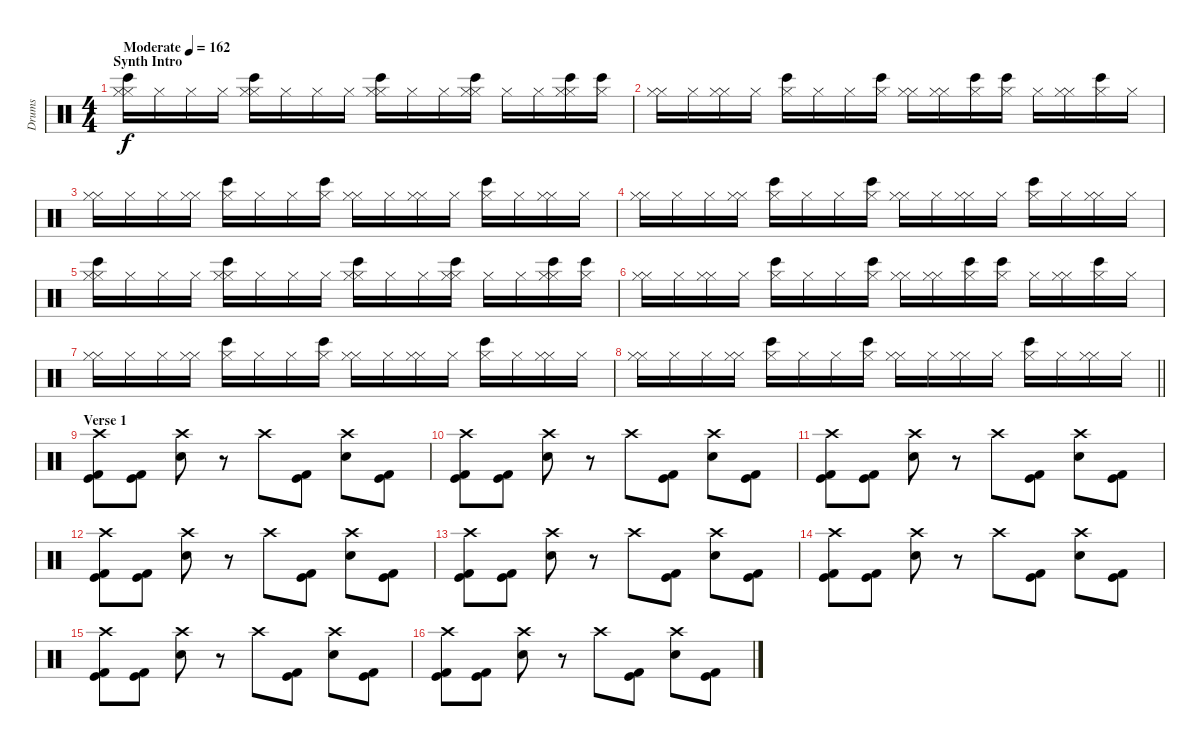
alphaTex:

\track ("Drums" "Drums") {instrument percussion}
\staff {score}
\articulation defaults
\ts (4 4)
\section ("" "Synth Intro")
\tempo (162 "Moderate")
\clef neutral
\ks c
("Hi-Hat (closed)" "Bongo High (hit)" "Hi-Hat (closed)").16{dy f} "Hi-Hat (closed)".16 "Hi-Hat (closed)".16 "Hi-Hat (closed)".16 ("Hi-Hat (closed)" "Bongo High (hit)" "Hi-Hat (closed)").16 "Hi-Hat (closed)".16 "Hi-Hat (closed)".16 "Hi-Hat (closed)".16 ("Hi-Hat (closed)" "Bongo High (hit)" "Hi-Hat (closed)").16 "Hi-Hat (closed)".16 "Hi-Hat (closed)".16 ("Hi-Hat (closed)" "Bongo High (hit)" "Hi-Hat (closed)").16 "Hi-Hat (closed)".16 "Hi-Hat (closed)".16 ("Hi-Hat (closed)" "Bongo High (hit)" "Hi-Hat (closed)").16 ("Bongo High (hit)" "Hi-Hat (closed)").16 |
("Hi-Hat (closed)" "Hi-Hat (closed)").16 "Hi-Hat (closed)".16 ("Hi-Hat (closed)" "Hi-Hat (closed)").16 "Hi-Hat (closed)".16 ("Bongo High (hit)" "Hi-Hat (closed)").16 "Hi-Hat (closed)".16 "Hi-Hat (closed)".16 ("Bongo High (hit)" "Hi-Hat (closed)").16 ("Hi-Hat (closed)" "Hi-Hat (closed)").16 ("Hi-Hat (closed)" "Hi-Hat (closed)").16 ("Bongo High (hit)" "Hi-Hat (closed)").16 ("Bongo High (hit)" "Hi-Hat (closed)").16 "Hi-Hat (closed)".16 ("Hi-Hat (closed)" "Hi-Hat (closed)").16 ("Bongo High (hit)" "Hi-Hat (closed)").16 "Hi-Hat (closed)".16 |
("Hi-Hat (closed)" "Hi-Hat (closed)").16 "Hi-Hat (closed)".16 "Hi-Hat (closed)".16 ("Hi-Hat (closed)" "Hi-Hat (closed)").16 ("Bongo High (hit)" "Hi-Hat (closed)").16 "Hi-Hat (closed)".16 "Hi-Hat (closed)".16 ("Bongo High (hit)" "Hi-Hat (closed)").16 ("Hi-Hat (closed)" "Hi-Hat (closed)").16 "Hi-Hat (closed)".16 ("Hi-Hat (closed)" "Hi-Hat (closed)").16 "Hi-Hat (closed)".16 ("Bongo High (hit)" "Hi-Hat (closed)").16 "Hi-Hat (closed)".16 ("Hi-Hat (closed)" "Hi-Hat (closed)").16 "Hi-Hat (closed)".16 |
("Hi-Hat (closed)" "Hi-Hat (closed)").16 "Hi-Hat (closed)".16 "Hi-Hat (closed)".16 ("Hi-Hat (closed)" "Hi-Hat (closed)").16 ("Bongo High (hit)" "Hi-Hat (closed)").16 "Hi-Hat (closed)".16 "Hi-Hat (closed)".16 ("Bongo High (hit)" "Hi-Hat (closed)").16 ("Hi-Hat (closed)" "Hi-Hat (closed)").16 "Hi-Hat (closed)".16 ("Hi-Hat (closed)" "Hi-Hat (closed)").16 "Hi-Hat (closed)".16 ("Bongo High (hit)" "Hi-Hat (closed)").16 "Hi-Hat (closed)".16 ("Hi-Hat (closed)" "Hi-Hat (closed)").16 "Hi-Hat (closed)".16 |
("Hi-Hat (closed)" "Bongo High (hit)" "Hi-Hat (closed)").16 "Hi-Hat (closed)".16 "Hi-Hat (closed)".16 "Hi-Hat (closed)".16 ("Hi-Hat (closed)" "Bongo High (hit)" "Hi-Hat (closed)").16 "Hi-Hat (closed)".16 "Hi-Hat (closed)".16 "Hi-Hat (closed)".16 ("Hi-Hat (closed)" "Bongo High (hit)" "Hi-Hat (closed)").16 "Hi-Hat (closed)".16 "Hi-Hat (closed)".16 ("Hi-Hat (closed)" "Bongo High (hit)" "Hi-Hat (closed)").16 "Hi-Hat (closed)".16 "Hi-Hat (closed)".16 ("Hi-Hat (closed)" "Bongo High (hit)" "Hi-Hat (closed)").16 ("Bongo High (hit)" "Hi-Hat (closed)").16 |
("Hi-Hat (closed)" "Hi-Hat (closed)").16 "Hi-Hat (closed)".16 ("Hi-Hat (closed)" "Hi-Hat (closed)").16 "Hi-Hat (closed)".16 ("Bongo High (hit)" "Hi-Hat (closed)").16 "Hi-Hat (closed)".16 "Hi-Hat (closed)".16 ("Bongo High (hit)" "Hi-Hat (closed)").16 ("Hi-Hat (closed)" "Hi-Hat (closed)").16 ("Hi-Hat (closed)" "Hi-Hat (closed)").16 ("Bongo High (hit)" "Hi-Hat (closed)").16 ("Bongo High (hit)" "Hi-Hat (closed)").16 "Hi-Hat (closed)".16 ("Hi-Hat (closed)" "Hi-Hat (closed)").16 ("Bongo High (hit)" "Hi-Hat (closed)").16 "Hi-Hat (closed)".16 |
("Hi-Hat (closed)" "Hi-Hat (closed)").16 "Hi-Hat (closed)".16 "Hi-Hat (closed)".16 ("Hi-Hat (closed)" "Hi-Hat (closed)").16 ("Bongo High (hit)" "Hi-Hat (closed)").16 "Hi-Hat (closed)".16 "Hi-Hat (closed)".16 ("Bongo High (hit)" "Hi-Hat (closed)").16 ("Hi-Hat (closed)" "Hi-Hat (closed)").16 "Hi-Hat (closed)".16 ("Hi-Hat (closed)" "Hi-Hat (closed)").16 "Hi-Hat (closed)".16 ("Bongo High (hit)" "Hi-Hat (closed)").16 "Hi-Hat (closed)".16 ("Hi-Hat (closed)" "Hi-Hat (closed)").16 "Hi-Hat (closed)".16 |
\barLineRight lightlight
("Hi-Hat (closed)" "Hi-Hat (closed)").16 "Hi-Hat (closed)".16 "Hi-Hat (closed)".16 ("Hi-Hat (closed)" "Hi-Hat (closed)").16 ("Bongo High (hit)" "Hi-Hat (closed)").16 "Hi-Hat (closed)".16 "Hi-Hat (closed)".16 ("Bongo High (hit)" "Hi-Hat (closed)").16 ("Hi-Hat (closed)" "Hi-Hat (closed)").16 "Hi-Hat (closed)".16 ("Hi-Hat (closed)" "Hi-Hat (closed)").16 "Hi-Hat (closed)".16 ("Bongo High (hit)" "Hi-Hat (closed)").16 "Hi-Hat (closed)".16 ("Hi-Hat (closed)" "Hi-Hat (closed)").16 "Hi-Hat (closed)".16 |
\section ("" "Verse 1")
("Kick (hit)" "Kick (hit) 2" "Crash high (hit)").8 ("Kick (hit)" "Kick (hit) 2").8 ("Snare (hit) 2" "Crash high (hit)").8 r.8 "Crash high (hit)".8 ("Kick (hit)" "Kick (hit) 2").8 ("Snare (hit) 2" "Crash high (hit)").8 ("Kick (hit)" "Kick (hit) 2").8 |
("Kick (hit)" "Kick (hit) 2" "Crash high (hit)").8 ("Kick (hit)" "Kick (hit) 2").8 ("Snare (hit) 2" "Crash high (hit)").8 r.8 "Crash high (hit)".8 ("Kick (hit)" "Kick (hit) 2").8 ("Snare (hit) 2" "Crash high (hit)").8 ("Kick (hit)" "Kick (hit) 2").8 |
("Kick (hit)" "Kick (hit) 2" "Crash high (hit)").8 ("Kick (hit)" "Kick (hit) 2").8 ("Snare (hit) 2" "Crash high (hit)").8 r.8 "Crash high (hit)".8 ("Kick (hit)" "Kick (hit) 2").8 ("Snare (hit) 2" "Crash high (hit)").8 ("Kick (hit)" "Kick (hit) 2").8 |
("Kick (hit)" "Kick (hit) 2" "Crash high (hit)").8 ("Kick (hit)" "Kick (hit) 2").8 ("Snare (hit) 2" "Crash high (hit)").8 r.8 "Crash high (hit)".8 ("Kick (hit)" "Kick (hit) 2").8 ("Snare (hit) 2" "Crash high (hit)").8 ("Kick (hit)" "Kick (hit) 2").8 |
("Kick (hit)" "Kick (hit) 2" "Crash high (hit)").8 ("Kick (hit)" "Kick (hit) 2").8 ("Snare (hit) 2" "Crash high (hit)").8 r.8 "Crash high (hit)".8 ("Kick (hit)" "Kick (hit) 2").8 ("Snare (hit) 2" "Crash high (hit)").8 ("Kick (hit)" "Kick (hit) 2").8 |
("Kick (hit)" "Kick (hit) 2" "Crash high (hit)").8 ("Kick (hit)" "Kick (hit) 2").8 ("Snare (hit) 2" "Crash high (hit)").8 r.8 "Crash high (hit)".8 ("Kick (hit)" "Kick (hit) 2").8 ("Snare (hit) 2" "Crash high (hit)").8 ("Kick (hit)" "Kick (hit) 2").8 |
("Kick (hit)" "Kick (hit) 2" "Crash high (hit)").8 ("Kick (hit)" "Kick (hit) 2").8 ("Snare (hit) 2" "Crash high (hit)").8 r.8 "Crash high (hit)".8 ("Kick (hit)" "Kick (hit) 2").8 ("Snare (hit) 2" "Crash high (hit)").8 ("Kick (hit)" "Kick (hit) 2").8 |
("Kick (hit)" "Kick (hit) 2" "Crash high (hit)").8 ("Kick (hit)" "Kick (hit) 2").8 ("Snare (hit) 2" "Crash high (hit)").8 r.8 "Crash high (hit)".8 ("Kick (hit)" "Kick (hit) 2").8 ("Snare (hit) 2" "Crash high (hit)").8 ("Kick (hit)" "Kick (hit) 2").8
